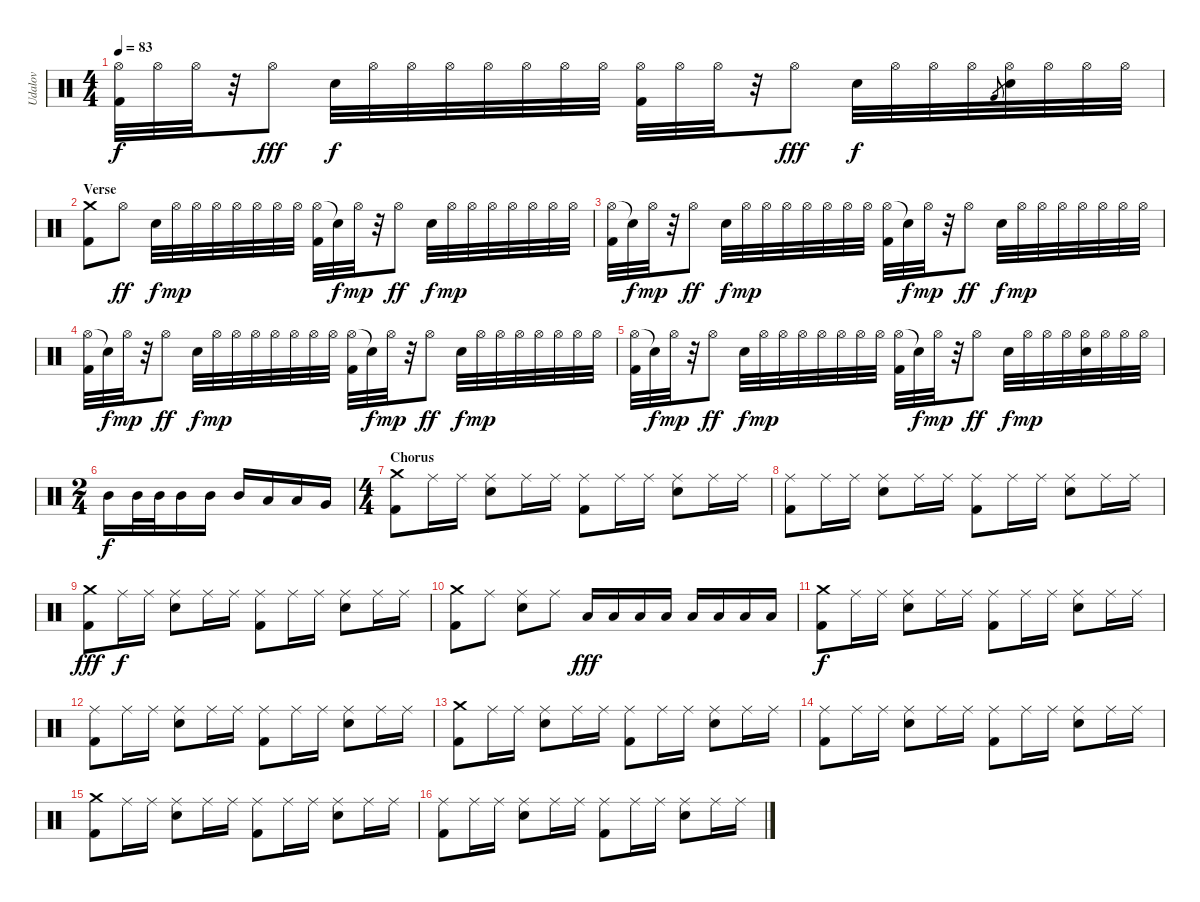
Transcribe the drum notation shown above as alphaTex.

\track ("Udalov" "Udalov") {instrument percussion}
\staff {score}
\articulation defaults
\ts (4 4)
\tempo 83
\clef neutral
\ks c
("Hi-Hat (open)" "Kick (hit) 2").32{dy f} "Hi-Hat (open)".32 "Hi-Hat (open)".32 r.32 "Hi-Hat (open)".8{dy fff} "Snare (hit) 2".32{dy f} "Hi-Hat (open)".32 "Hi-Hat (open)".32 "Hi-Hat (open)".32 "Hi-Hat (open)".32 "Hi-Hat (open)".32 "Hi-Hat (open)".32 "Hi-Hat (open)".32 ("Hi-Hat (open)" "Kick (hit) 2").32 "Hi-Hat (open)".32 "Hi-Hat (open)".32 r.32 "Hi-Hat (open)".8{dy fff} "Snare (hit) 2".32{dy f} "Hi-Hat (open)".32 "Hi-Hat (open)".32 "Hi-Hat (open)".32 "Very Low Tom (hit)".8{gr} ("Hi-Hat (open)" "Snare (hit) 2").32 "Hi-Hat (open)".32 "Hi-Hat (open)".32 "Hi-Hat (open)".32 |
\section ("" "Verse")
("Crash medium (hit)" "Kick (hit) 2").8 "Hi-Hat (open)".8{dy ff} "Snare (hit) 2".32{dy f} "Hi-Hat (open)".32{dy mp} "Hi-Hat (open)".32 "Hi-Hat (open)".32 "Hi-Hat (open)".32 "Hi-Hat (open)".32 "Hi-Hat (open)".32 "Hi-Hat (open)".32 ("Hi-Hat (open)" "Kick (hit) 2").32 "Snare (hit)"{t}.32{dy f} "Hi-Hat (open)".32{dy mp} r.32 "Hi-Hat (open)".8{dy ff} "Snare (hit) 2".32{dy f} "Hi-Hat (open)".32{dy mp} "Hi-Hat (open)".32 "Hi-Hat (open)".32 "Hi-Hat (open)".32 "Hi-Hat (open)".32 "Hi-Hat (open)".32 "Hi-Hat (open)".32 |
("Hi-Hat (open)" "Kick (hit) 2").32 "Snare (hit)"{t}.32{dy f} "Hi-Hat (open)".32{dy mp} r.32 "Hi-Hat (open)".8{dy ff} "Snare (hit) 2".32{dy f} "Hi-Hat (open)".32{dy mp} "Hi-Hat (open)".32 "Hi-Hat (open)".32 "Hi-Hat (open)".32 "Hi-Hat (open)".32 "Hi-Hat (open)".32 "Hi-Hat (open)".32 ("Hi-Hat (open)" "Kick (hit) 2").32 "Snare (hit)"{t}.32{dy f} "Hi-Hat (open)".32{dy mp} r.32 "Hi-Hat (open)".8{dy ff} "Snare (hit) 2".32{dy f} "Hi-Hat (open)".32{dy mp} "Hi-Hat (open)".32 "Hi-Hat (open)".32 "Hi-Hat (open)".32 "Hi-Hat (open)".32 "Hi-Hat (open)".32 "Hi-Hat (open)".32 |
("Hi-Hat (open)" "Kick (hit) 2").32 "Snare (hit)"{t}.32{dy f} "Hi-Hat (open)".32{dy mp} r.32 "Hi-Hat (open)".8{dy ff} "Snare (hit) 2".32{dy f} "Hi-Hat (open)".32{dy mp} "Hi-Hat (open)".32 "Hi-Hat (open)".32 "Hi-Hat (open)".32 "Hi-Hat (open)".32 "Hi-Hat (open)".32 "Hi-Hat (open)".32 ("Hi-Hat (open)" "Kick (hit) 2").32 "Snare (hit)"{t}.32{dy f} "Hi-Hat (open)".32{dy mp} r.32 "Hi-Hat (open)".8{dy ff} "Snare (hit) 2".32{dy f} "Hi-Hat (open)".32{dy mp} "Hi-Hat (open)".32 "Hi-Hat (open)".32 "Hi-Hat (open)".32 "Hi-Hat (open)".32 "Hi-Hat (open)".32 "Hi-Hat (open)".32 |
("Hi-Hat (open)" "Kick (hit) 2").32 "Snare (hit)"{t}.32{dy f} "Hi-Hat (open)".32{dy mp} r.32 "Hi-Hat (open)".8{dy ff} "Snare (hit) 2".32{dy f} "Hi-Hat (open)".32{dy mp} "Hi-Hat (open)".32 "Hi-Hat (open)".32 "Hi-Hat (open)".32 "Hi-Hat (open)".32 "Hi-Hat (open)".32 "Hi-Hat (open)".32 ("Hi-Hat (open)" "Kick (hit) 2").32 "Snare (hit)"{t}.32{dy f} "Hi-Hat (open)".32{dy mp} r.32 "Hi-Hat (open)".8{dy ff} "Snare (hit) 2".32{dy f} "Hi-Hat (open)".32{dy mp} "Hi-Hat (open)".32 "Hi-Hat (open)".32 ("Hi-Hat (open)" "Snare (hit) 2").32 "Hi-Hat (open)".32 "Hi-Hat (open)".32 "Hi-Hat (open)".32 |
\ts (2 4)
"Mid Tom (hit)".16{dy f} "Mid Tom (hit)".32 "Mid Tom (hit)".32 "Mid Tom (hit)".16 "Mid Tom (hit)".16 "Mid Tom (hit)".16 "Low Tom (hit)".16 "Low Tom (hit)".16 "Very Low Tom (hit)".16 |
\ts (4 4)
\section ("" "Chorus")
("Kick (hit) 2" "Crash medium (hit)").8 "Ride (middle)".16 "Ride (middle)".16 ("Snare (hit) 2" "Ride (middle)").8 "Ride (middle)".16 "Ride (middle)".16 ("Kick (hit) 2" "Ride (middle)").8 "Ride (middle)".16 "Ride (middle)".16 ("Snare (hit) 2" "Ride (middle)").8 "Ride (middle)".16 "Ride (middle)".16 |
("Kick (hit) 2" "Ride (middle)").8 "Ride (middle)".16 "Ride (middle)".16 ("Snare (hit) 2" "Ride (middle)").8 "Ride (middle)".16 "Ride (middle)".16 ("Kick (hit) 2" "Ride (middle)").8 "Ride (middle)".16 "Ride (middle)".16 ("Snare (hit) 2" "Ride (middle)").8 "Ride (middle)".16 "Ride (middle)".16 |
("Kick (hit) 2" "Crash medium (hit)").8{dy fff} "Ride (middle)".16{dy f} "Ride (middle)".16 ("Snare (hit) 2" "Ride (middle)").8 "Ride (middle)".16 "Ride (middle)".16 ("Kick (hit) 2" "Ride (middle)").8 "Ride (middle)".16 "Ride (middle)".16 ("Snare (hit) 2" "Ride (middle)").8 "Ride (middle)".16 "Ride (middle)".16 |
("Kick (hit) 2" "Crash medium (hit)").8 "Ride (middle)".8 ("Snare (hit) 2" "Ride (middle)").8 "Ride (middle)".8 "Low Tom (hit)".16{dy fff} "Low Tom (hit)".16 "Low Tom (hit)".16 "Low Tom (hit)".16 "Low Tom (hit)".16 "Low Tom (hit)".16 "Low Tom (hit)".16 "Low Tom (hit)".16 |
("Kick (hit) 2" "Crash medium (hit)").8{dy f} "Ride (middle)".16 "Ride (middle)".16 ("Snare (hit) 2" "Ride (middle)").8 "Ride (middle)".16 "Ride (middle)".16 ("Kick (hit) 2" "Ride (middle)").8 "Ride (middle)".16 "Ride (middle)".16 ("Snare (hit) 2" "Ride (middle)").8 "Ride (middle)".16 "Ride (middle)".16 |
("Kick (hit) 2" "Ride (middle)").8 "Ride (middle)".16 "Ride (middle)".16 ("Snare (hit) 2" "Ride (middle)").8 "Ride (middle)".16 "Ride (middle)".16 ("Kick (hit) 2" "Ride (middle)").8 "Ride (middle)".16 "Ride (middle)".16 ("Snare (hit) 2" "Ride (middle)").8 "Ride (middle)".16 "Ride (middle)".16 |
("Kick (hit) 2" "Crash medium (hit)").8 "Ride (middle)".16 "Ride (middle)".16 ("Snare (hit) 2" "Ride (middle)").8 "Ride (middle)".16 "Ride (middle)".16 ("Kick (hit) 2" "Ride (middle)").8 "Ride (middle)".16 "Ride (middle)".16 ("Snare (hit) 2" "Ride (middle)").8 "Ride (middle)".16 "Ride (middle)".16 |
("Kick (hit) 2" "Ride (middle)").8 "Ride (middle)".16 "Ride (middle)".16 ("Snare (hit) 2" "Ride (middle)").8 "Ride (middle)".16 "Ride (middle)".16 ("Kick (hit) 2" "Ride (middle)").8 "Ride (middle)".16 "Ride (middle)".16 ("Snare (hit) 2" "Ride (middle)").8 "Ride (middle)".16 "Ride (middle)".16 |
("Kick (hit) 2" "Crash medium (hit)").8 "Ride (middle)".16 "Ride (middle)".16 ("Snare (hit) 2" "Ride (middle)").8 "Ride (middle)".16 "Ride (middle)".16 ("Kick (hit) 2" "Ride (middle)").8 "Ride (middle)".16 "Ride (middle)".16 ("Snare (hit) 2" "Ride (middle)").8 "Ride (middle)".16 "Ride (middle)".16 |
("Kick (hit) 2" "Ride (middle)").8 "Ride (middle)".16 "Ride (middle)".16 ("Snare (hit) 2" "Ride (middle)").8 "Ride (middle)".16 "Ride (middle)".16 ("Kick (hit) 2" "Ride (middle)").8 "Ride (middle)".16 "Ride (middle)".16 ("Snare (hit) 2" "Ride (middle)").8 "Ride (middle)".16 "Ride (middle)".16
